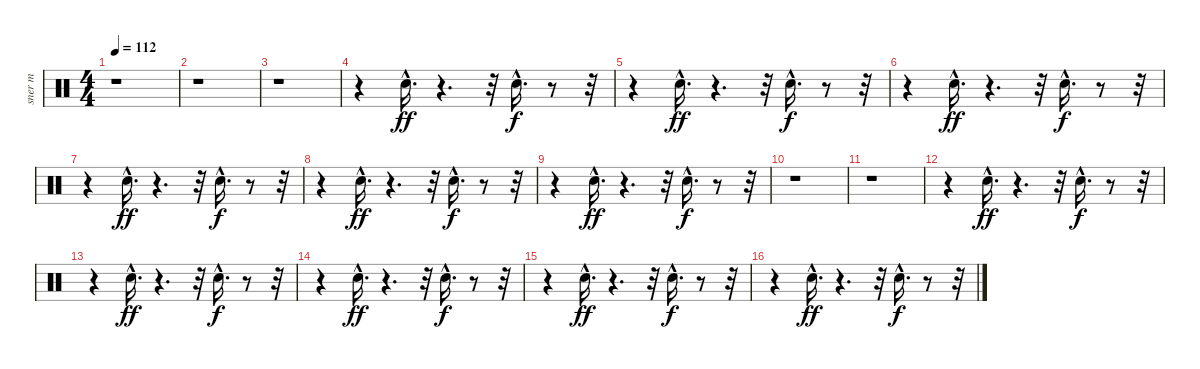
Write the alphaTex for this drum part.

\track ("sner m" "sner m") {instrument percussion}
\staff {score}
\articulation defaults
\ts (4 4)
\tempo 112
\clef neutral
\ks c
r.1{dy f} |
r.1 |
r.1 |
r.4 "Snare (hit) 2"{hac}.16{d dy ff} r.4{d} r.32 "Snare (hit) 2"{hac}.16{d dy f} r.8 r.32 |
r.4 "Snare (hit) 2"{hac}.16{d dy ff} r.4{d} r.32 "Snare (hit) 2"{hac}.16{d dy f} r.8 r.32 |
r.4 "Snare (hit) 2"{hac}.16{d dy ff} r.4{d} r.32 "Snare (hit) 2"{hac}.16{d dy f} r.8 r.32 |
r.4 "Snare (hit) 2"{hac}.16{d dy ff} r.4{d} r.32 "Snare (hit) 2"{hac}.16{d dy f} r.8 r.32 |
r.4 "Snare (hit) 2"{hac}.16{d dy ff} r.4{d} r.32 "Snare (hit) 2"{hac}.16{d dy f} r.8 r.32 |
r.4 "Snare (hit) 2"{hac}.16{d dy ff} r.4{d} r.32 "Snare (hit) 2"{hac}.16{d dy f} r.8 r.32 |
r.1 |
r.1 |
r.4 "Snare (hit) 2"{hac}.16{d dy ff} r.4{d} r.32 "Snare (hit) 2"{hac}.16{d dy f} r.8 r.32 |
r.4 "Snare (hit) 2"{hac}.16{d dy ff} r.4{d} r.32 "Snare (hit) 2"{hac}.16{d dy f} r.8 r.32 |
r.4 "Snare (hit) 2"{hac}.16{d dy ff} r.4{d} r.32 "Snare (hit) 2"{hac}.16{d dy f} r.8 r.32 |
r.4 "Snare (hit) 2"{hac}.16{d dy ff} r.4{d} r.32 "Snare (hit) 2"{hac}.16{d dy f} r.8 r.32 |
r.4 "Snare (hit) 2"{hac}.16{d dy ff} r.4{d} r.32 "Snare (hit) 2"{hac}.16{d dy f} r.8 r.32
